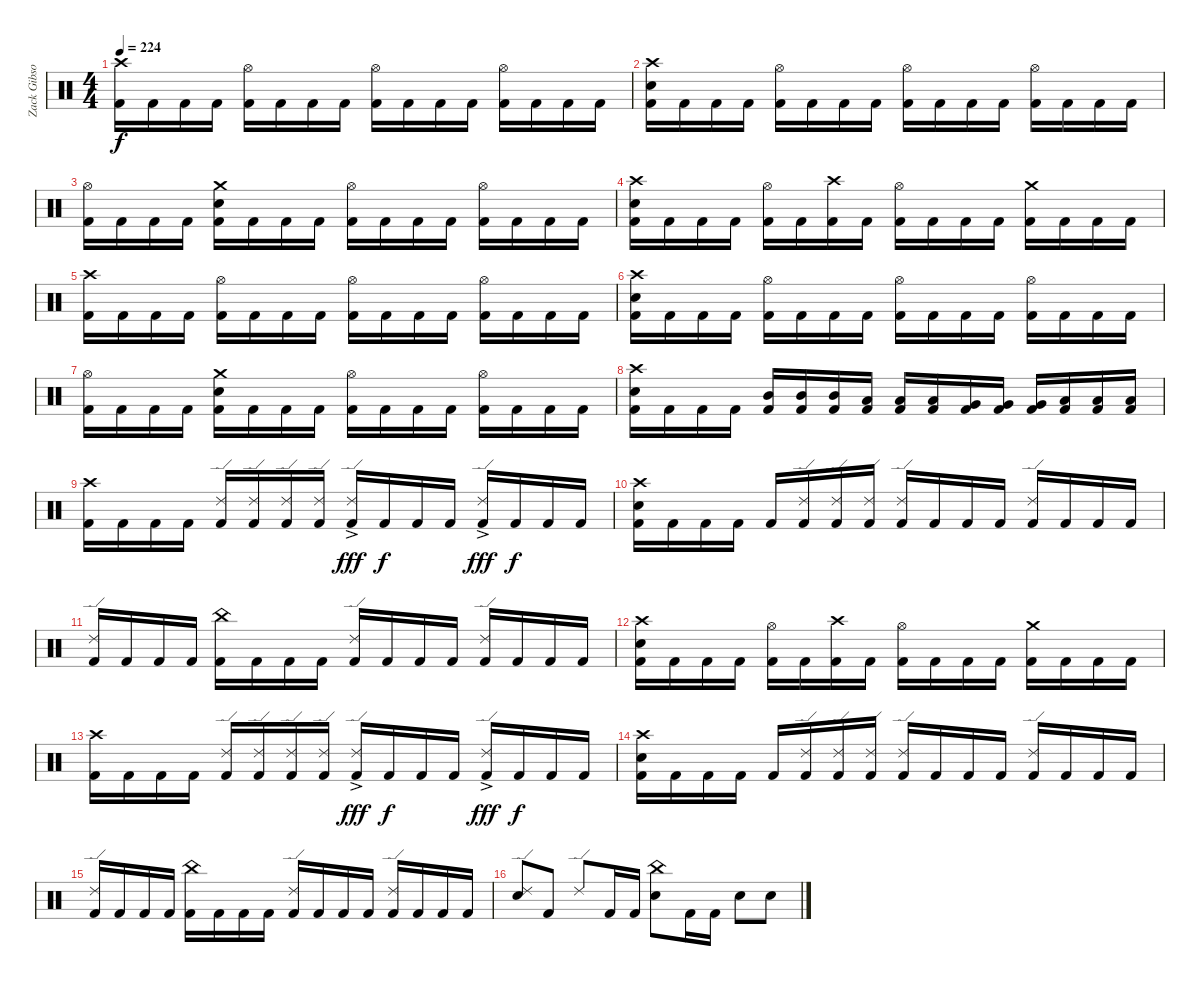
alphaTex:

\track ("Zack Gibson" "Zack Gibso") {instrument percussion}
\staff {score}
\articulation defaults
\ts (4 4)
\tempo 224
\clef neutral
\ks c
("Crash high (hit)" "Kick (hit) 2").16{dy f} "Kick (hit) 2".16 "Kick (hit) 2".16 "Kick (hit) 2".16 ("Hi-Hat (open)" "Kick (hit) 2").16 "Kick (hit) 2".16 "Kick (hit) 2".16 "Kick (hit) 2".16 ("Hi-Hat (open)" "Kick (hit) 2").16 "Kick (hit) 2".16 "Kick (hit) 2".16 "Kick (hit) 2".16 ("Hi-Hat (open)" "Kick (hit) 2").16 "Kick (hit) 2".16 "Kick (hit) 2".16 "Kick (hit) 2".16 |
("Snare (hit) 2" "Crash high (hit)" "Kick (hit) 2").16 "Kick (hit) 2".16 "Kick (hit) 2".16 "Kick (hit) 2".16 ("Hi-Hat (open)" "Kick (hit) 2").16 "Kick (hit) 2".16 "Kick (hit) 2".16 "Kick (hit) 2".16 ("Hi-Hat (open)" "Kick (hit) 2").16 "Kick (hit) 2".16 "Kick (hit) 2".16 "Kick (hit) 2".16 ("Hi-Hat (open)" "Kick (hit) 2").16 "Kick (hit) 2".16 "Kick (hit) 2".16 "Kick (hit) 2".16 |
("Hi-Hat (open)" "Kick (hit) 2").16 "Kick (hit) 2".16 "Kick (hit) 2".16 "Kick (hit) 2".16 ("Crash medium (hit)" "Snare (hit) 2" "Kick (hit) 2").16 "Kick (hit) 2".16 "Kick (hit) 2".16 "Kick (hit) 2".16 ("Hi-Hat (open)" "Kick (hit) 2").16 "Kick (hit) 2".16 "Kick (hit) 2".16 "Kick (hit) 2".16 ("Hi-Hat (open)" "Kick (hit) 2").16 "Kick (hit) 2".16 "Kick (hit) 2".16 "Kick (hit) 2".16 |
("Snare (hit) 2" "Crash high (hit)" "Kick (hit) 2").16 "Kick (hit) 2".16 "Kick (hit) 2".16 "Kick (hit) 2".16 ("Hi-Hat (open)" "Kick (hit) 2").16 "Kick (hit) 2".16 ("Crash high (hit)" "Kick (hit) 2").16 "Kick (hit) 2".16 ("Hi-Hat (open)" "Kick (hit) 2").16 "Kick (hit) 2".16 "Kick (hit) 2".16 "Kick (hit) 2".16 ("Crash medium (hit)" "Kick (hit) 2").16 "Kick (hit) 2".16 "Kick (hit) 2".16 "Kick (hit) 2".16 |
("Crash high (hit)" "Kick (hit) 2").16 "Kick (hit) 2".16 "Kick (hit) 2".16 "Kick (hit) 2".16 ("Hi-Hat (open)" "Kick (hit) 2").16 "Kick (hit) 2".16 "Kick (hit) 2".16 "Kick (hit) 2".16 ("Hi-Hat (open)" "Kick (hit) 2").16 "Kick (hit) 2".16 "Kick (hit) 2".16 "Kick (hit) 2".16 ("Hi-Hat (open)" "Kick (hit) 2").16 "Kick (hit) 2".16 "Kick (hit) 2".16 "Kick (hit) 2".16 |
("Snare (hit) 2" "Crash high (hit)" "Kick (hit) 2").16 "Kick (hit) 2".16 "Kick (hit) 2".16 "Kick (hit) 2".16 ("Hi-Hat (open)" "Kick (hit) 2").16 "Kick (hit) 2".16 "Kick (hit) 2".16 "Kick (hit) 2".16 ("Hi-Hat (open)" "Kick (hit) 2").16 "Kick (hit) 2".16 "Kick (hit) 2".16 "Kick (hit) 2".16 ("Hi-Hat (open)" "Kick (hit) 2").16 "Kick (hit) 2".16 "Kick (hit) 2".16 "Kick (hit) 2".16 |
("Hi-Hat (open)" "Kick (hit) 2").16 "Kick (hit) 2".16 "Kick (hit) 2".16 "Kick (hit) 2".16 ("Crash medium (hit)" "Snare (hit) 2" "Kick (hit) 2").16 "Kick (hit) 2".16 "Kick (hit) 2".16 "Kick (hit) 2".16 ("Hi-Hat (open)" "Kick (hit) 2").16 "Kick (hit) 2".16 "Kick (hit) 2".16 "Kick (hit) 2".16 ("Hi-Hat (open)" "Kick (hit) 2").16 "Kick (hit) 2".16 "Kick (hit) 2".16 "Kick (hit) 2".16 |
("Crash high (hit)" "Snare (hit) 2" "Kick (hit) 2").16 "Kick (hit) 2".16 "Kick (hit) 2".16 "Kick (hit) 2".16 ("Mid Tom (hit)" "Kick (hit) 2").16 ("Mid Tom (hit)" "Kick (hit) 2").16 ("Mid Tom (hit)" "Kick (hit) 2").16 ("Low Tom (hit)" "Kick (hit) 2").16 ("Low Tom (hit)" "Kick (hit) 2").16 ("Low Tom (hit)" "Kick (hit) 2").16 ("Very Low Tom (hit)" "Kick (hit) 2").16 ("Very Low Tom (hit)" "Kick (hit) 2").16 ("Very Low Tom (hit)" "Kick (hit) 2").16 ("Low Floor Tom (hit)" "Kick (hit) 2").16 ("Low Floor Tom (hit)" "Kick (hit) 2").16 ("Low Floor Tom (hit)" "Kick (hit) 2").16 |
("Crash high (hit)" "Kick (hit) 2").16 "Kick (hit) 2".16 "Kick (hit) 2".16 "Kick (hit) 2".16 ("Ride (edge) 2" "Kick (hit) 2").16 ("Ride (edge) 2" "Kick (hit) 2").16 ("Ride (edge) 2" "Kick (hit) 2").16 ("Ride (edge) 2" "Kick (hit) 2").16 ("Ride (edge) 2"{ac} "Kick (hit) 2").16{dy fff} "Kick (hit) 2".16{dy f} "Kick (hit) 2".16 "Kick (hit) 2".16 ("Ride (edge) 2"{ac} "Kick (hit) 2").16{dy fff} "Kick (hit) 2".16{dy f} "Kick (hit) 2".16 "Kick (hit) 2".16 |
("Snare (hit) 2" "Crash high (hit)" "Kick (hit) 2").16 "Kick (hit) 2".16 "Kick (hit) 2".16 "Kick (hit) 2".16 "Kick (hit) 2".16 ("Ride (edge) 2" "Kick (hit) 2").16 ("Ride (edge) 2" "Kick (hit) 2").16 ("Ride (edge) 2" "Kick (hit) 2").16 ("Ride (edge) 2" "Kick (hit) 2").16 "Kick (hit) 2".16 "Kick (hit) 2".16 "Kick (hit) 2".16 ("Ride (edge) 2" "Kick (hit) 2").16 "Kick (hit) 2".16 "Kick (hit) 2".16 "Kick (hit) 2".16 |
("Ride (edge) 2" "Kick (hit) 2").16 "Kick (hit) 2".16 "Kick (hit) 2".16 "Kick (hit) 2".16 ("China (hit)" "Kick (hit) 2").16 "Kick (hit) 2".16 "Kick (hit) 2".16 "Kick (hit) 2".16 ("Ride (edge) 2" "Kick (hit) 2").16 "Kick (hit) 2".16 "Kick (hit) 2".16 "Kick (hit) 2".16 ("Ride (edge) 2" "Kick (hit) 2").16 "Kick (hit) 2".16 "Kick (hit) 2".16 "Kick (hit) 2".16 |
("Snare (hit) 2" "Crash high (hit)" "Kick (hit) 2").16 "Kick (hit) 2".16 "Kick (hit) 2".16 "Kick (hit) 2".16 ("Hi-Hat (open)" "Kick (hit) 2").16 "Kick (hit) 2".16 ("Crash high (hit)" "Kick (hit) 2").16 "Kick (hit) 2".16 ("Hi-Hat (open)" "Kick (hit) 2").16 "Kick (hit) 2".16 "Kick (hit) 2".16 "Kick (hit) 2".16 ("Crash medium (hit)" "Kick (hit) 2").16 "Kick (hit) 2".16 "Kick (hit) 2".16 "Kick (hit) 2".16 |
("Crash high (hit)" "Kick (hit) 2").16 "Kick (hit) 2".16 "Kick (hit) 2".16 "Kick (hit) 2".16 ("Ride (edge) 2" "Kick (hit) 2").16 ("Ride (edge) 2" "Kick (hit) 2").16 ("Ride (edge) 2" "Kick (hit) 2").16 ("Ride (edge) 2" "Kick (hit) 2").16 ("Ride (edge) 2"{ac} "Kick (hit) 2").16{dy fff} "Kick (hit) 2".16{dy f} "Kick (hit) 2".16 "Kick (hit) 2".16 ("Ride (edge) 2"{ac} "Kick (hit) 2").16{dy fff} "Kick (hit) 2".16{dy f} "Kick (hit) 2".16 "Kick (hit) 2".16 |
("Snare (hit) 2" "Crash high (hit)" "Kick (hit) 2").16 "Kick (hit) 2".16 "Kick (hit) 2".16 "Kick (hit) 2".16 "Kick (hit) 2".16 ("Ride (edge) 2" "Kick (hit) 2").16 ("Ride (edge) 2" "Kick (hit) 2").16 ("Ride (edge) 2" "Kick (hit) 2").16 ("Ride (edge) 2" "Kick (hit) 2").16 "Kick (hit) 2".16 "Kick (hit) 2".16 "Kick (hit) 2".16 ("Ride (edge) 2" "Kick (hit) 2").16 "Kick (hit) 2".16 "Kick (hit) 2".16 "Kick (hit) 2".16 |
("Ride (edge) 2" "Kick (hit) 2").16 "Kick (hit) 2".16 "Kick (hit) 2".16 "Kick (hit) 2".16 ("China (hit)" "Kick (hit) 2").16 "Kick (hit) 2".16 "Kick (hit) 2".16 "Kick (hit) 2".16 ("Ride (edge) 2" "Kick (hit) 2").16 "Kick (hit) 2".16 "Kick (hit) 2".16 "Kick (hit) 2".16 ("Ride (edge) 2" "Kick (hit) 2").16 "Kick (hit) 2".16 "Kick (hit) 2".16 "Kick (hit) 2".16 |
("Ride (edge) 2" "Snare (hit) 2").8 "Kick (hit) 2".8 "Ride (edge) 2".8 "Kick (hit) 2".16 "Kick (hit) 2".16 ("China (hit)" "Snare (hit) 2").8 "Kick (hit) 2".16 "Kick (hit) 2".16 "Snare (hit) 2".8 "Snare (hit) 2".8
